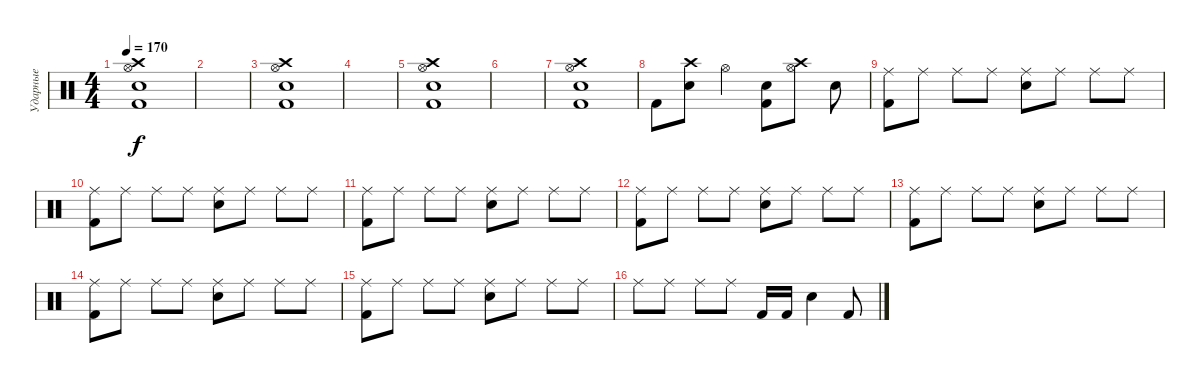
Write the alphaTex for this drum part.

\track ("Ударные" "Ударные") {instrument percussion}
\staff {score}
\articulation defaults
\ts (4 4)
\tempo 170
\clef neutral
\ks c
("Hi-Hat (open)" "Crash high (hit)" "Snare (hit) 2" "Kick (hit) 2").1{dy f} |
|
("Hi-Hat (open)" "Crash high (hit)" "Snare (hit) 2" "Kick (hit) 2").1 |
|
("Hi-Hat (open)" "Crash high (hit)" "Snare (hit) 2" "Kick (hit) 2").1 |
|
("Hi-Hat (open)" "Crash high (hit)" "Snare (hit) 2" "Kick (hit) 2").1 |
"Kick (hit) 2".8 ("Snare (hit) 2" "Crash high (hit)").8 "Hi-Hat (open)".4 ("Snare (hit) 2" "Kick (hit) 2").8 ("Crash high (hit)" "Hi-Hat (open)").8 "Snare (hit) 2".8 |
("Ride (middle)" "Kick (hit) 2").8 "Ride (middle)".8 "Ride (middle)".8 "Ride (middle)".8 ("Ride (middle)" "Snare (hit) 2").8 "Ride (middle)".8 "Ride (middle)".8 "Ride (middle)".8 |
("Ride (middle)" "Kick (hit) 2").8 "Ride (middle)".8 "Ride (middle)".8 "Ride (middle)".8 ("Ride (middle)" "Snare (hit) 2").8 "Ride (middle)".8 "Ride (middle)".8 "Ride (middle)".8 |
("Ride (middle)" "Kick (hit) 2").8 "Ride (middle)".8 "Ride (middle)".8 "Ride (middle)".8 ("Ride (middle)" "Snare (hit) 2").8 "Ride (middle)".8 "Ride (middle)".8 "Ride (middle)".8 |
("Ride (middle)" "Kick (hit) 2").8 "Ride (middle)".8 "Ride (middle)".8 "Ride (middle)".8 ("Ride (middle)" "Snare (hit) 2").8 "Ride (middle)".8 "Ride (middle)".8 "Ride (middle)".8 |
("Ride (middle)" "Kick (hit) 2").8 "Ride (middle)".8 "Ride (middle)".8 "Ride (middle)".8 ("Ride (middle)" "Snare (hit) 2").8 "Ride (middle)".8 "Ride (middle)".8 "Ride (middle)".8 |
("Ride (middle)" "Kick (hit) 2").8 "Ride (middle)".8 "Ride (middle)".8 "Ride (middle)".8 ("Ride (middle)" "Snare (hit) 2").8 "Ride (middle)".8 "Ride (middle)".8 "Ride (middle)".8 |
("Ride (middle)" "Kick (hit) 2").8 "Ride (middle)".8 "Ride (middle)".8 "Ride (middle)".8 ("Ride (middle)" "Snare (hit) 2").8 "Ride (middle)".8 "Ride (middle)".8 "Ride (middle)".8 |
"Ride (middle)".8 "Ride (middle)".8 "Ride (middle)".8 "Ride (middle)".8 "Kick (hit) 2".16 "Kick (hit) 2".16 "Snare (hit) 2".4 "Kick (hit) 2".8
